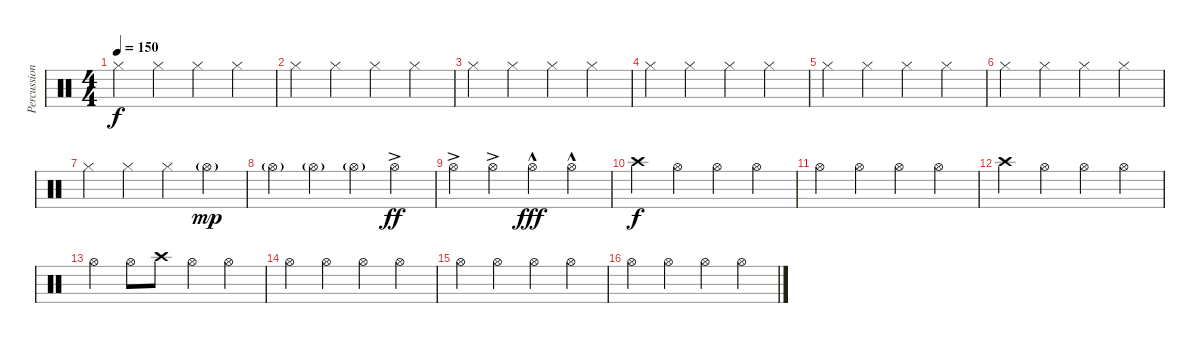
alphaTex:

\track ("Percussion Cymbals" "Percussion") {instrument percussion}
\staff {score}
\articulation defaults
\ts (4 4)
\tempo 150
\clef neutral
\ks c "Hi-Hat (closed)".4{dy f} "Hi-Hat (closed)".4 "Hi-Hat (closed)".4 "Hi-Hat (closed)".4
|
"Hi-Hat (closed)".4 "Hi-Hat (closed)".4 "Hi-Hat (closed)".4 "Hi-Hat (closed)".4 |
"Hi-Hat (closed)".4 "Hi-Hat (closed)".4 "Hi-Hat (closed)".4 "Hi-Hat (closed)".4 |
"Hi-Hat (closed)".4 "Hi-Hat (closed)".4 "Hi-Hat (closed)".4 "Hi-Hat (closed)".4 |
"Hi-Hat (closed)".4 "Hi-Hat (closed)".4 "Hi-Hat (closed)".4 "Hi-Hat (closed)".4 |
"Hi-Hat (closed)".4 "Hi-Hat (closed)".4 "Hi-Hat (closed)".4 "Hi-Hat (closed)".4 |
"Hi-Hat (closed)".4 "Hi-Hat (closed)".4 "Hi-Hat (closed)".4 "Hi-Hat (open)"{g}.4{dy mp} |
"Hi-Hat (open)"{g}.4 "Hi-Hat (open)"{g}.4 "Hi-Hat (open)"{g}.4 "Hi-Hat (open)"{ac}.4{dy ff} |
"Hi-Hat (open)"{ac}.4 "Hi-Hat (open)"{ac}.4 "Hi-Hat (open)"{hac}.4{dy fff} "Hi-Hat (open)"{hac}.4 |
"Crash high (hit)".4{dy f} "Hi-Hat (open)".4 "Hi-Hat (open)".4 "Hi-Hat (open)".4 |
"Hi-Hat (open)".4 "Hi-Hat (open)".4 "Hi-Hat (open)".4 "Hi-Hat (open)".4 |
"Crash high (hit)".4 "Hi-Hat (open)".4 "Hi-Hat (open)".4 "Hi-Hat (open)".4 |
"Hi-Hat (open)".4 "Hi-Hat (open)".8 "Crash high (hit)".8 "Hi-Hat (open)".4 "Hi-Hat (open)".4 |
"Hi-Hat (open)".4 "Hi-Hat (open)".4 "Hi-Hat (open)".4 "Hi-Hat (open)".4 |
"Hi-Hat (open)".4 "Hi-Hat (open)".4 "Hi-Hat (open)".4 "Hi-Hat (open)".4 |
"Hi-Hat (open)".4 "Hi-Hat (open)".4 "Hi-Hat (open)".4 "Hi-Hat (open)".4
